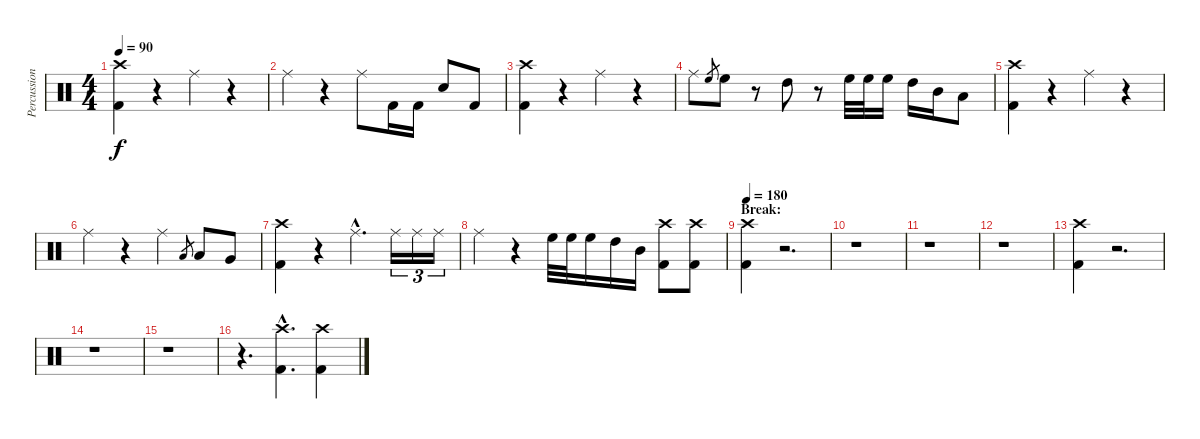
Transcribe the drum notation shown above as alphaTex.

\track ("Percussion" "Percussion") {instrument percussion}
\staff {score}
\articulation defaults
\ts (4 4)
\tempo 90
\clef neutral
\ks c
("Crash high (hit)" "Kick (hit) 2").4{dy f} r.4 "Ride (middle)".4 r.4 |
"Ride (middle)".4 r.4 "Ride (middle)".8 "Kick (hit) 2".16 "Kick (hit) 2".16 "Electric Snare (hit)".8 "Kick (hit) 2".8 |
("Crash high (hit)" "Kick (hit) 2").4 r.4 "Ride (middle)".4 r.4 |
"Ride (middle)".8 "High Floor Tom (hit)".8{gr} "High Floor Tom (hit)".8 r.8 "High Tom (hit)".8 r.8 "High Floor Tom (hit)".32 "High Floor Tom (hit)".32 "High Floor Tom (hit)".16 "High Tom (hit)".16 "Mid Tom (hit)".16 "Low Tom (hit)".8 |
("Crash high (hit)" "Kick (hit) 2").4 r.4 "Ride (middle)".4 r.4 |
"Ride (middle)".4 r.4 "Ride (middle)".4 "Low Tom (hit)".8{gr} "Low Tom (hit)".8 "Very Low Tom (hit)".8 |
("Crash high (hit)" "Kick (hit) 2").4 r.4 "Ride (middle)"{hac}.4{d} "Ride (middle)".16{tu (3 2)} "Ride (middle)".16{tu (3 2)} "Ride (middle)".16{tu (3 2)} |
"Ride (middle)".4 r.4 "High Floor Tom (hit)".32 "High Floor Tom (hit)".32 "High Floor Tom (hit)".16 "High Tom (hit)".16 "Mid Tom (hit)".16 ("Crash high (hit)" "Kick (hit) 2").8 ("Crash high (hit)" "Kick (hit) 2").8 |
\section ("" "Break:")
\tempo 180
("Crash high (hit)" "Kick (hit) 2").4 r.2{d} |
r.1 |
r.1 |
r.1 |
("Crash high (hit)" "Kick (hit) 2").4 r.2{d} |
r.1 |
r.1 |
r.4{d} ("Crash high (hit)"{hac} "Kick (hit) 2"{hac}).4{d} ("Crash high (hit)" "Kick (hit) 2").4
